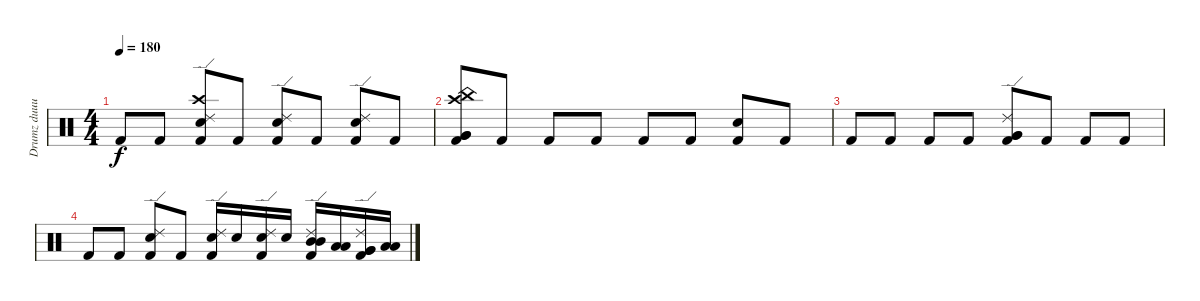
\track ("Drumz duuuuude" "Drumz duuu") {instrument percussion}
\staff {score}
\articulation defaults
\ts (4 4)
\tempo 180
\clef neutral
\ks c "Kick (hit) 2".8{dy f} "Kick (hit) 2".8
("Ride (edge) 2" "Crash high (hit)" "Kick (hit) 2" "Snare (hit) 2").8 "Kick (hit) 2".8 ("Ride (edge) 2" "Kick (hit) 2" "Electric Snare (hit)").8 "Kick (hit) 2".8 ("Ride (edge) 2" "Kick (hit) 2" "Electric Snare (hit)").8 "Kick (hit) 2".8 |
("Crash high (hit)" "China (hit)" "Kick (hit) 2" "Very Low Tom (hit)" "Very Low Tom (hit)").8 "Kick (hit) 2".8 "Kick (hit) 2".8 "Kick (hit) 2".8 "Kick (hit) 2".8 "Kick (hit) 2".8 ("Kick (hit) 2" "Snare (hit) 2").8 "Kick (hit) 2".8 |
"Kick (hit) 2".8 "Kick (hit) 2".8 "Kick (hit) 2".8 "Kick (hit) 2".8 ("Ride (edge) 2" "Kick (hit) 2" "Very Low Tom (hit)" "Very Low Tom (hit)").8 "Kick (hit) 2".8 "Kick (hit) 2".8 "Kick (hit) 2".8 |
"Kick (hit) 2".8 "Kick (hit) 2".8 ("Ride (edge) 2" "Kick (hit) 2" "Snare (hit) 2").8 "Kick (hit) 2".8 ("Ride (edge) 2" "Kick (hit) 2" "Electric Snare (hit)").16 "Electric Snare (hit)".16 ("Ride (edge) 2" "Kick (hit) 2" "Electric Snare (hit)").16 "Electric Snare (hit)".16 ("Ride (edge) 2" "Kick (hit) 2" "Mid Tom (hit)" "Mid Tom (hit)").16 ("Low Tom (hit)" "Low Tom (hit)").16 ("Ride (edge) 2" "Kick (hit) 2" "Very Low Tom (hit)" "Very Low Tom (hit)").16 ("Low Floor Tom (hit)" "Low Floor Tom (hit)").16
